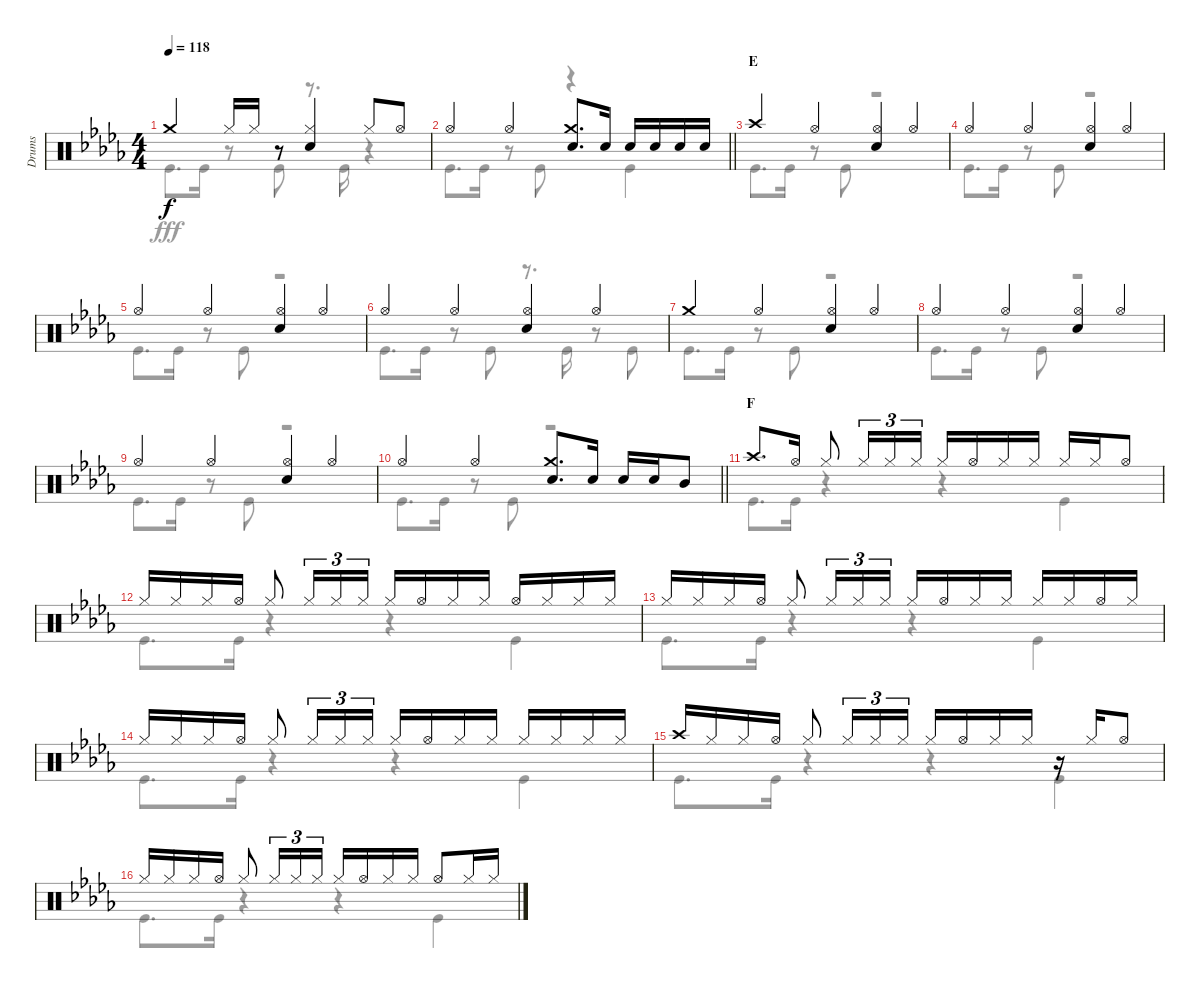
\track ("Drums" "Drums") {instrument percussion}
\staff {score}
\articulation defaults
\voice
\ts (4 4)
\tempo 118
\clef neutral
\ks db "Crash medium (hit)".4{dy f} "Hi-Hat (closed)".16 "Hi-Hat (closed)".16
r.8 ("Hi-Hat (closed)" "Snare (hit) 2").4 "Hi-Hat (closed)".8 "Hi-Hat (open)".8 |
\barLineRight lightlight "Hi-Hat (open)".4 "Hi-Hat (open)".4
("Crash medium (hit)" "Snare (hit) 2").8{d} "Snare (hit) 2".16 "Snare (hit) 2".16 "Snare (hit) 2".16 "Snare (hit) 2".16 "Snare (hit) 2".16 |
\section ("" "E")
"Crash high (hit)".4 "Hi-Hat (open)".4 ("Hi-Hat (open)" "Snare (hit) 2").4 "Hi-Hat (open)".4 |
"Hi-Hat (open)".4 "Hi-Hat (open)".4 ("Hi-Hat (open)" "Snare (hit) 2").4 "Hi-Hat (open)".4 |
"Hi-Hat (open)".4 "Hi-Hat (open)".4 ("Hi-Hat (open)" "Snare (hit) 2").4 "Hi-Hat (open)".4 |
"Hi-Hat (open)".4 "Hi-Hat (open)".4 ("Hi-Hat (open)" "Snare (hit) 2").4 "Hi-Hat (open)".4 |
"Crash medium (hit)".4 "Hi-Hat (open)".4 ("Hi-Hat (open)" "Snare (hit) 2").4 "Hi-Hat (open)".4 |
"Hi-Hat (open)".4 "Hi-Hat (open)".4 ("Hi-Hat (open)" "Snare (hit) 2").4 "Hi-Hat (open)".4 |
"Hi-Hat (open)".4 "Hi-Hat (open)".4 ("Hi-Hat (open)" "Snare (hit) 2").4 "Hi-Hat (open)".4 |
\barLineRight lightlight "Hi-Hat (open)".4 "Hi-Hat (open)".4
("Crash medium (hit)" "Snare (hit) 2").8{d} "Snare (hit) 2".16 "Snare (hit) 2".16 "Snare (hit) 2".16 "Mid Tom (hit)".8 |
\section ("" "F")
"Crash high (hit)".8{d} "Hi-Hat (open)".16 "Hi-Hat (closed)".8 "Hi-Hat (closed)".16{tu (3 2)} "Hi-Hat (closed)".16{tu (3 2)} "Hi-Hat (closed)".16{tu (3 2)} "Hi-Hat (closed)".16 "Hi-Hat (open)".16 "Hi-Hat (closed)".16 "Hi-Hat (closed)".16 "Hi-Hat (closed)".16 "Hi-Hat (closed)".16 "Hi-Hat (open)".8 |
"Hi-Hat (closed)".16 "Hi-Hat (closed)".16 "Hi-Hat (closed)".16 "Hi-Hat (open)".16 "Hi-Hat (closed)".8 "Hi-Hat (closed)".16{tu (3 2)} "Hi-Hat (closed)".16{tu (3 2)} "Hi-Hat (closed)".16{tu (3 2)} "Hi-Hat (closed)".16 "Hi-Hat (open)".16 "Hi-Hat (closed)".16 "Hi-Hat (closed)".16 "Hi-Hat (open)".16 "Hi-Hat (closed)".16 "Hi-Hat (closed)".16 "Hi-Hat (closed)".16 |
"Hi-Hat (closed)".16 "Hi-Hat (closed)".16 "Hi-Hat (closed)".16 "Hi-Hat (open)".16 "Hi-Hat (closed)".8 "Hi-Hat (closed)".16{tu (3 2)} "Hi-Hat (closed)".16{tu (3 2)} "Hi-Hat (closed)".16{tu (3 2)} "Hi-Hat (closed)".16 "Hi-Hat (open)".16 "Hi-Hat (closed)".16 "Hi-Hat (closed)".16 "Hi-Hat (closed)".16 "Hi-Hat (closed)".16 "Hi-Hat (open)".16 "Hi-Hat (closed)".16 |
"Hi-Hat (closed)".16 "Hi-Hat (closed)".16 "Hi-Hat (closed)".16 "Hi-Hat (open)".16 "Hi-Hat (closed)".8 "Hi-Hat (closed)".16{tu (3 2)} "Hi-Hat (closed)".16{tu (3 2)} "Hi-Hat (closed)".16{tu (3 2)} "Hi-Hat (closed)".16 "Hi-Hat (open)".16 "Hi-Hat (closed)".16 "Hi-Hat (closed)".16 "Hi-Hat (closed)".16 "Hi-Hat (closed)".16 "Hi-Hat (closed)".16 "Hi-Hat (closed)".16 |
"Crash high (hit)".16 "Hi-Hat (closed)".16 "Hi-Hat (closed)".16 "Hi-Hat (open)".16 "Hi-Hat (closed)".8 "Hi-Hat (closed)".16{tu (3 2)} "Hi-Hat (closed)".16{tu (3 2)} "Hi-Hat (closed)".16{tu (3 2)} "Hi-Hat (closed)".16 "Hi-Hat (open)".16 "Hi-Hat (closed)".16 "Hi-Hat (closed)".16 r.16 "Hi-Hat (closed)".16 "Hi-Hat (open)".8 |
"Hi-Hat (closed)".16 "Hi-Hat (closed)".16 "Hi-Hat (closed)".16 "Hi-Hat (open)".16 "Hi-Hat (closed)".8 "Hi-Hat (closed)".16{tu (3 2)} "Hi-Hat (closed)".16{tu (3 2)} "Hi-Hat (closed)".16{tu (3 2)} "Hi-Hat (closed)".16 "Hi-Hat (open)".16 "Hi-Hat (closed)".16 "Hi-Hat (closed)".16 "Hi-Hat (open)".8 "Hi-Hat (closed)".16 "Hi-Hat (closed)".16
\voice
\clef neutral
\ottava regular
\simile none
\ks db "Kick (hit)".8{d dy fff} "Kick (hit)".16
r.8 "Kick (hit)".8 r.8{d} "Kick (hit)".16 r.4 |
\barLineRight lightlight "Kick (hit)".8{d} "Kick (hit)".16
r.8 "Kick (hit)".8 r.4 "Kick (hit)".4 |
"Kick (hit)".8{d} "Kick (hit)".16 r.8 "Kick (hit)".8 r.2 |
"Kick (hit)".8{d} "Kick (hit)".16 r.8 "Kick (hit)".8 r.2 |
"Kick (hit)".8{d} "Kick (hit)".16 r.8 "Kick (hit)".8 r.2 |
"Kick (hit)".8{d} "Kick (hit)".16 r.8 "Kick (hit)".8 r.8{d} "Kick (hit)".16 r.8 "Kick (hit)".8 |
"Kick (hit)".8{d} "Kick (hit)".16 r.8 "Kick (hit)".8 r.2 |
"Kick (hit)".8{d} "Kick (hit)".16 r.8 "Kick (hit)".8 r.2 |
"Kick (hit)".8{d} "Kick (hit)".16 r.8 "Kick (hit)".8 r.2 |
\barLineRight lightlight "Kick (hit)".8{d} "Kick (hit)".16
r.8 "Kick (hit)".8 r.2 |
"Kick (hit)".8{d} "Kick (hit)".16 r.4 r.4 "Kick (hit)".4 |
"Kick (hit)".8{d} "Kick (hit)".16 r.4 r.4 "Kick (hit)".4 |
"Kick (hit)".8{d} "Kick (hit)".16 r.4 r.4 "Kick (hit)".4 |
"Kick (hit)".8{d} "Kick (hit)".16 r.4 r.4 "Kick (hit)".4 |
"Kick (hit)".8{d} "Kick (hit)".16 r.4 r.4 "Kick (hit)".4 |
"Kick (hit)".8{d} "Kick (hit)".16 r.4 r.4 "Kick (hit)".4
